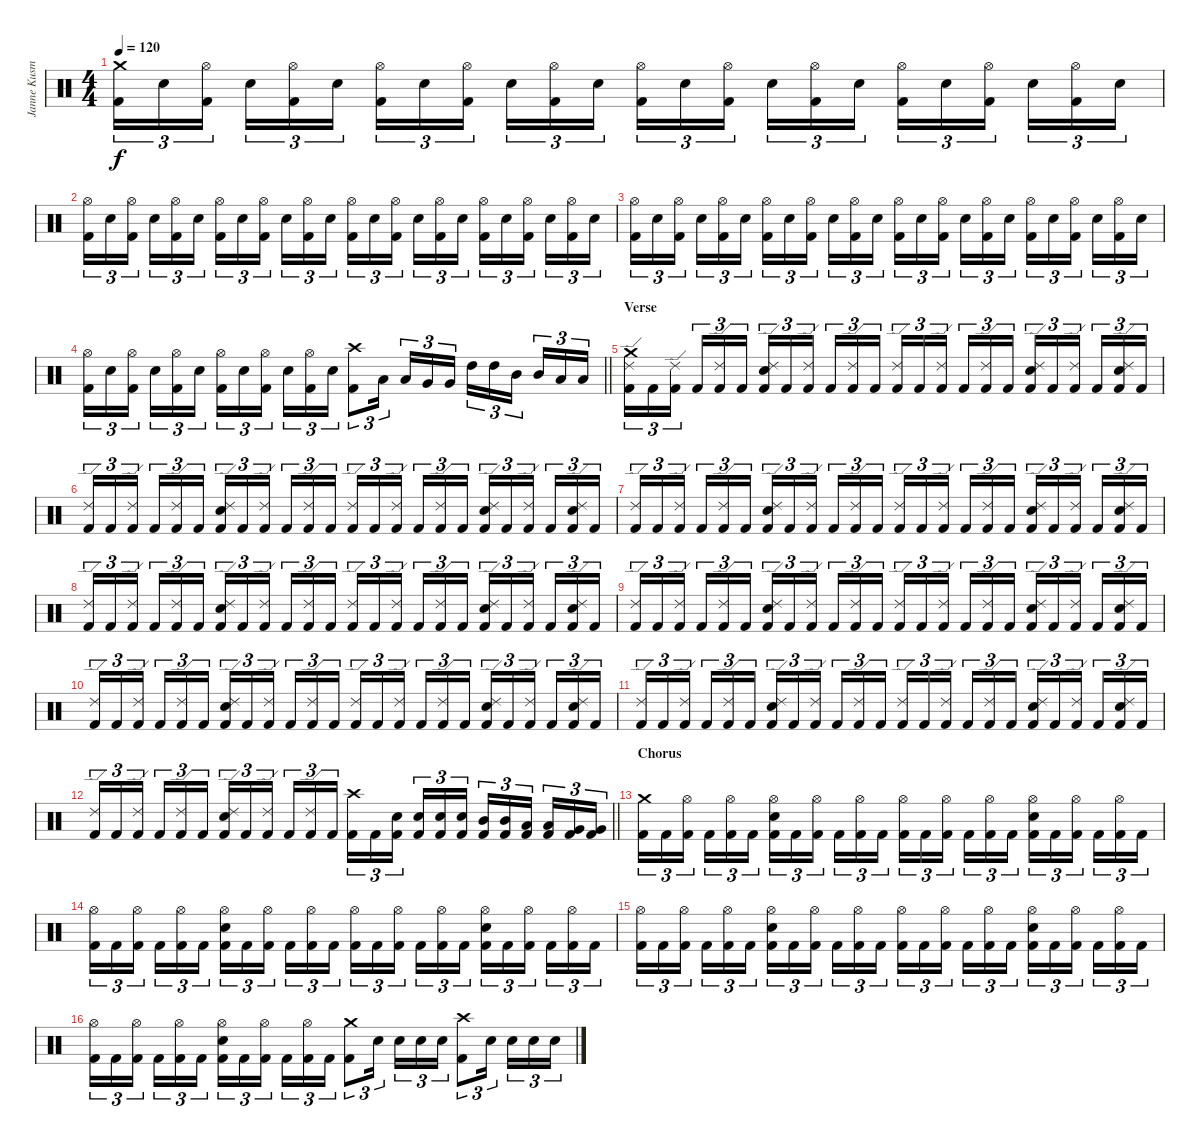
\track ("Janne Kusmin" "Janne Kusm") {instrument percussion}
\staff {score}
\articulation defaults
\ts (4 4)
\tempo 120
\clef neutral
\ks c
("Crash medium (hit)" "Kick (hit) 2").16{tu (3 2) dy f} "Snare (hit) 2".16{tu (3 2)} ("Hi-Hat (open)" "Kick (hit) 2").16{tu (3 2) beam splitsecondary} "Snare (hit) 2".16{tu (3 2)} ("Hi-Hat (open)" "Kick (hit) 2").16{tu (3 2)} "Snare (hit) 2".16{tu (3 2)} ("Hi-Hat (open)" "Kick (hit) 2").16{tu (3 2)} "Snare (hit) 2".16{tu (3 2)} ("Hi-Hat (open)" "Kick (hit) 2").16{tu (3 2) beam splitsecondary} "Snare (hit) 2".16{tu (3 2)} ("Hi-Hat (open)" "Kick (hit) 2").16{tu (3 2)} "Snare (hit) 2".16{tu (3 2)} ("Hi-Hat (open)" "Kick (hit) 2").16{tu (3 2)} "Snare (hit) 2".16{tu (3 2)} ("Hi-Hat (open)" "Kick (hit) 2").16{tu (3 2) beam splitsecondary} "Snare (hit) 2".16{tu (3 2)} ("Hi-Hat (open)" "Kick (hit) 2").16{tu (3 2)} "Snare (hit) 2".16{tu (3 2)} ("Hi-Hat (open)" "Kick (hit) 2").16{tu (3 2)} "Snare (hit) 2".16{tu (3 2)} ("Hi-Hat (open)" "Kick (hit) 2").16{tu (3 2) beam splitsecondary} "Snare (hit) 2".16{tu (3 2)} ("Hi-Hat (open)" "Kick (hit) 2").16{tu (3 2)} "Snare (hit) 2".16{tu (3 2)} |
("Hi-Hat (open)" "Kick (hit) 2").16{tu (3 2)} "Snare (hit) 2".16{tu (3 2)} ("Hi-Hat (open)" "Kick (hit) 2").16{tu (3 2) beam splitsecondary} "Snare (hit) 2".16{tu (3 2)} ("Hi-Hat (open)" "Kick (hit) 2").16{tu (3 2)} "Snare (hit) 2".16{tu (3 2)} ("Hi-Hat (open)" "Kick (hit) 2").16{tu (3 2)} "Snare (hit) 2".16{tu (3 2)} ("Hi-Hat (open)" "Kick (hit) 2").16{tu (3 2) beam splitsecondary} "Snare (hit) 2".16{tu (3 2)} ("Hi-Hat (open)" "Kick (hit) 2").16{tu (3 2)} "Snare (hit) 2".16{tu (3 2)} ("Hi-Hat (open)" "Kick (hit) 2").16{tu (3 2)} "Snare (hit) 2".16{tu (3 2)} ("Hi-Hat (open)" "Kick (hit) 2").16{tu (3 2) beam splitsecondary} "Snare (hit) 2".16{tu (3 2)} ("Hi-Hat (open)" "Kick (hit) 2").16{tu (3 2)} "Snare (hit) 2".16{tu (3 2)} ("Hi-Hat (open)" "Kick (hit) 2").16{tu (3 2)} "Snare (hit) 2".16{tu (3 2)} ("Hi-Hat (open)" "Kick (hit) 2").16{tu (3 2) beam splitsecondary} "Snare (hit) 2".16{tu (3 2)} ("Hi-Hat (open)" "Kick (hit) 2").16{tu (3 2)} "Snare (hit) 2".16{tu (3 2)} |
("Hi-Hat (open)" "Kick (hit) 2").16{tu (3 2)} "Snare (hit) 2".16{tu (3 2)} ("Hi-Hat (open)" "Kick (hit) 2").16{tu (3 2) beam splitsecondary} "Snare (hit) 2".16{tu (3 2)} ("Hi-Hat (open)" "Kick (hit) 2").16{tu (3 2)} "Snare (hit) 2".16{tu (3 2)} ("Hi-Hat (open)" "Kick (hit) 2").16{tu (3 2)} "Snare (hit) 2".16{tu (3 2)} ("Hi-Hat (open)" "Kick (hit) 2").16{tu (3 2) beam splitsecondary} "Snare (hit) 2".16{tu (3 2)} ("Hi-Hat (open)" "Kick (hit) 2").16{tu (3 2)} "Snare (hit) 2".16{tu (3 2)} ("Hi-Hat (open)" "Kick (hit) 2").16{tu (3 2)} "Snare (hit) 2".16{tu (3 2)} ("Hi-Hat (open)" "Kick (hit) 2").16{tu (3 2) beam splitsecondary} "Snare (hit) 2".16{tu (3 2)} ("Hi-Hat (open)" "Kick (hit) 2").16{tu (3 2)} "Snare (hit) 2".16{tu (3 2)} ("Hi-Hat (open)" "Kick (hit) 2").16{tu (3 2)} "Snare (hit) 2".16{tu (3 2)} ("Hi-Hat (open)" "Kick (hit) 2").16{tu (3 2) beam splitsecondary} "Snare (hit) 2".16{tu (3 2)} ("Hi-Hat (open)" "Kick (hit) 2").16{tu (3 2)} "Snare (hit) 2".16{tu (3 2)} |
\barLineRight lightlight
("Hi-Hat (open)" "Kick (hit) 2").16{tu (3 2)} "Snare (hit) 2".16{tu (3 2)} ("Hi-Hat (open)" "Kick (hit) 2").16{tu (3 2) beam splitsecondary} "Snare (hit) 2".16{tu (3 2)} ("Hi-Hat (open)" "Kick (hit) 2").16{tu (3 2)} "Snare (hit) 2".16{tu (3 2)} ("Hi-Hat (open)" "Kick (hit) 2").16{tu (3 2)} "Snare (hit) 2".16{tu (3 2)} ("Hi-Hat (open)" "Kick (hit) 2").16{tu (3 2) beam splitsecondary} "Snare (hit) 2".16{tu (3 2)} ("Hi-Hat (open)" "Kick (hit) 2").16{tu (3 2)} "Snare (hit) 2".16{tu (3 2)} ("Crash high (hit)" "Kick (hit) 2").8{tu (3 2)} "Low Tom (hit)".16{tu (3 2) beam splitsecondary} "Low Tom (hit)".16{tu (3 2)} "Very Low Tom (hit)".16{tu (3 2)} "Very Low Tom (hit)".16{tu (3 2)} "High Tom (hit)".16{tu (3 2)} "High Tom (hit)".16{tu (3 2)} "Mid Tom (hit)".16{tu (3 2) beam splitsecondary} "Mid Tom (hit)".16{tu (3 2)} "Low Tom (hit)".16{tu (3 2)} "Low Tom (hit)".16{tu (3 2)} |
\section ("" "Verse")
("Crash medium (hit)" "Ride (edge) 2" "Kick (hit) 2").16{tu (3 2)} "Kick (hit) 2".16{tu (3 2)} ("Ride (edge) 2" "Kick (hit) 2").16{tu (3 2) beam splitsecondary} "Kick (hit) 2".16{tu (3 2)} ("Ride (edge) 2" "Kick (hit) 2").16{tu (3 2)} "Kick (hit) 2".16{tu (3 2)} ("Ride (edge) 2" "Snare (hit) 2" "Kick (hit) 2").16{tu (3 2)} "Kick (hit) 2".16{tu (3 2)} ("Ride (edge) 2" "Kick (hit) 2").16{tu (3 2) beam splitsecondary} "Kick (hit) 2".16{tu (3 2)} ("Ride (edge) 2" "Kick (hit) 2").16{tu (3 2)} "Kick (hit) 2".16{tu (3 2)} ("Ride (edge) 2" "Kick (hit) 2").16{tu (3 2)} "Kick (hit) 2".16{tu (3 2)} ("Ride (edge) 2" "Kick (hit) 2").16{tu (3 2) beam splitsecondary} "Kick (hit) 2".16{tu (3 2)} ("Ride (edge) 2" "Kick (hit) 2").16{tu (3 2)} "Kick (hit) 2".16{tu (3 2)} ("Ride (edge) 2" "Snare (hit) 2" "Kick (hit) 2").16{tu (3 2)} "Kick (hit) 2".16{tu (3 2)} ("Ride (edge) 2" "Kick (hit) 2").16{tu (3 2) beam splitsecondary} "Kick (hit) 2".16{tu (3 2)} ("Ride (edge) 2" "Snare (hit) 2" "Kick (hit) 2").16{tu (3 2)} "Kick (hit) 2".16{tu (3 2)} |
("Ride (edge) 2" "Kick (hit) 2").16{tu (3 2)} "Kick (hit) 2".16{tu (3 2)} ("Ride (edge) 2" "Kick (hit) 2").16{tu (3 2) beam splitsecondary} "Kick (hit) 2".16{tu (3 2)} ("Ride (edge) 2" "Kick (hit) 2").16{tu (3 2)} "Kick (hit) 2".16{tu (3 2)} ("Ride (edge) 2" "Snare (hit) 2" "Kick (hit) 2").16{tu (3 2)} "Kick (hit) 2".16{tu (3 2)} ("Ride (edge) 2" "Kick (hit) 2").16{tu (3 2) beam splitsecondary} "Kick (hit) 2".16{tu (3 2)} ("Ride (edge) 2" "Kick (hit) 2").16{tu (3 2)} "Kick (hit) 2".16{tu (3 2)} ("Ride (edge) 2" "Kick (hit) 2").16{tu (3 2)} "Kick (hit) 2".16{tu (3 2)} ("Ride (edge) 2" "Kick (hit) 2").16{tu (3 2) beam splitsecondary} "Kick (hit) 2".16{tu (3 2)} ("Ride (edge) 2" "Kick (hit) 2").16{tu (3 2)} "Kick (hit) 2".16{tu (3 2)} ("Ride (edge) 2" "Snare (hit) 2" "Kick (hit) 2").16{tu (3 2)} "Kick (hit) 2".16{tu (3 2)} ("Ride (edge) 2" "Kick (hit) 2").16{tu (3 2) beam splitsecondary} "Kick (hit) 2".16{tu (3 2)} ("Ride (edge) 2" "Snare (hit) 2" "Kick (hit) 2").16{tu (3 2)} "Kick (hit) 2".16{tu (3 2)} |
("Ride (edge) 2" "Kick (hit) 2").16{tu (3 2)} "Kick (hit) 2".16{tu (3 2)} ("Ride (edge) 2" "Kick (hit) 2").16{tu (3 2) beam splitsecondary} "Kick (hit) 2".16{tu (3 2)} ("Ride (edge) 2" "Kick (hit) 2").16{tu (3 2)} "Kick (hit) 2".16{tu (3 2)} ("Ride (edge) 2" "Snare (hit) 2" "Kick (hit) 2").16{tu (3 2)} "Kick (hit) 2".16{tu (3 2)} ("Ride (edge) 2" "Kick (hit) 2").16{tu (3 2) beam splitsecondary} "Kick (hit) 2".16{tu (3 2)} ("Ride (edge) 2" "Kick (hit) 2").16{tu (3 2)} "Kick (hit) 2".16{tu (3 2)} ("Ride (edge) 2" "Kick (hit) 2").16{tu (3 2)} "Kick (hit) 2".16{tu (3 2)} ("Ride (edge) 2" "Kick (hit) 2").16{tu (3 2) beam splitsecondary} "Kick (hit) 2".16{tu (3 2)} ("Ride (edge) 2" "Kick (hit) 2").16{tu (3 2)} "Kick (hit) 2".16{tu (3 2)} ("Ride (edge) 2" "Snare (hit) 2" "Kick (hit) 2").16{tu (3 2)} "Kick (hit) 2".16{tu (3 2)} ("Ride (edge) 2" "Kick (hit) 2").16{tu (3 2) beam splitsecondary} "Kick (hit) 2".16{tu (3 2)} ("Ride (edge) 2" "Snare (hit) 2" "Kick (hit) 2").16{tu (3 2)} "Kick (hit) 2".16{tu (3 2)} |
("Ride (edge) 2" "Kick (hit) 2").16{tu (3 2)} "Kick (hit) 2".16{tu (3 2)} ("Ride (edge) 2" "Kick (hit) 2").16{tu (3 2) beam splitsecondary} "Kick (hit) 2".16{tu (3 2)} ("Ride (edge) 2" "Kick (hit) 2").16{tu (3 2)} "Kick (hit) 2".16{tu (3 2)} ("Ride (edge) 2" "Snare (hit) 2" "Kick (hit) 2").16{tu (3 2)} "Kick (hit) 2".16{tu (3 2)} ("Ride (edge) 2" "Kick (hit) 2").16{tu (3 2) beam splitsecondary} "Kick (hit) 2".16{tu (3 2)} ("Ride (edge) 2" "Kick (hit) 2").16{tu (3 2)} "Kick (hit) 2".16{tu (3 2)} ("Ride (edge) 2" "Kick (hit) 2").16{tu (3 2)} "Kick (hit) 2".16{tu (3 2)} ("Ride (edge) 2" "Kick (hit) 2").16{tu (3 2) beam splitsecondary} "Kick (hit) 2".16{tu (3 2)} ("Ride (edge) 2" "Kick (hit) 2").16{tu (3 2)} "Kick (hit) 2".16{tu (3 2)} ("Ride (edge) 2" "Snare (hit) 2" "Kick (hit) 2").16{tu (3 2)} "Kick (hit) 2".16{tu (3 2)} ("Ride (edge) 2" "Kick (hit) 2").16{tu (3 2) beam splitsecondary} "Kick (hit) 2".16{tu (3 2)} ("Ride (edge) 2" "Snare (hit) 2" "Kick (hit) 2").16{tu (3 2)} "Kick (hit) 2".16{tu (3 2)} |
("Ride (edge) 2" "Kick (hit) 2").16{tu (3 2)} "Kick (hit) 2".16{tu (3 2)} ("Ride (edge) 2" "Kick (hit) 2").16{tu (3 2) beam splitsecondary} "Kick (hit) 2".16{tu (3 2)} ("Ride (edge) 2" "Kick (hit) 2").16{tu (3 2)} "Kick (hit) 2".16{tu (3 2)} ("Ride (edge) 2" "Snare (hit) 2" "Kick (hit) 2").16{tu (3 2)} "Kick (hit) 2".16{tu (3 2)} ("Ride (edge) 2" "Kick (hit) 2").16{tu (3 2) beam splitsecondary} "Kick (hit) 2".16{tu (3 2)} ("Ride (edge) 2" "Kick (hit) 2").16{tu (3 2)} "Kick (hit) 2".16{tu (3 2)} ("Ride (edge) 2" "Kick (hit) 2").16{tu (3 2)} "Kick (hit) 2".16{tu (3 2)} ("Ride (edge) 2" "Kick (hit) 2").16{tu (3 2) beam splitsecondary} "Kick (hit) 2".16{tu (3 2)} ("Ride (edge) 2" "Kick (hit) 2").16{tu (3 2)} "Kick (hit) 2".16{tu (3 2)} ("Ride (edge) 2" "Snare (hit) 2" "Kick (hit) 2").16{tu (3 2)} "Kick (hit) 2".16{tu (3 2)} ("Ride (edge) 2" "Kick (hit) 2").16{tu (3 2) beam splitsecondary} "Kick (hit) 2".16{tu (3 2)} ("Ride (edge) 2" "Snare (hit) 2" "Kick (hit) 2").16{tu (3 2)} "Kick (hit) 2".16{tu (3 2)} |
("Ride (edge) 2" "Kick (hit) 2").16{tu (3 2)} "Kick (hit) 2".16{tu (3 2)} ("Ride (edge) 2" "Kick (hit) 2").16{tu (3 2) beam splitsecondary} "Kick (hit) 2".16{tu (3 2)} ("Ride (edge) 2" "Kick (hit) 2").16{tu (3 2)} "Kick (hit) 2".16{tu (3 2)} ("Ride (edge) 2" "Snare (hit) 2" "Kick (hit) 2").16{tu (3 2)} "Kick (hit) 2".16{tu (3 2)} ("Ride (edge) 2" "Kick (hit) 2").16{tu (3 2) beam splitsecondary} "Kick (hit) 2".16{tu (3 2)} ("Ride (edge) 2" "Kick (hit) 2").16{tu (3 2)} "Kick (hit) 2".16{tu (3 2)} ("Ride (edge) 2" "Kick (hit) 2").16{tu (3 2)} "Kick (hit) 2".16{tu (3 2)} ("Ride (edge) 2" "Kick (hit) 2").16{tu (3 2) beam splitsecondary} "Kick (hit) 2".16{tu (3 2)} ("Ride (edge) 2" "Kick (hit) 2").16{tu (3 2)} "Kick (hit) 2".16{tu (3 2)} ("Ride (edge) 2" "Snare (hit) 2" "Kick (hit) 2").16{tu (3 2)} "Kick (hit) 2".16{tu (3 2)} ("Ride (edge) 2" "Kick (hit) 2").16{tu (3 2) beam splitsecondary} "Kick (hit) 2".16{tu (3 2)} ("Ride (edge) 2" "Snare (hit) 2" "Kick (hit) 2").16{tu (3 2)} "Kick (hit) 2".16{tu (3 2)} |
("Ride (edge) 2" "Kick (hit) 2").16{tu (3 2)} "Kick (hit) 2".16{tu (3 2)} ("Ride (edge) 2" "Kick (hit) 2").16{tu (3 2) beam splitsecondary} "Kick (hit) 2".16{tu (3 2)} ("Ride (edge) 2" "Kick (hit) 2").16{tu (3 2)} "Kick (hit) 2".16{tu (3 2)} ("Ride (edge) 2" "Snare (hit) 2" "Kick (hit) 2").16{tu (3 2)} "Kick (hit) 2".16{tu (3 2)} ("Ride (edge) 2" "Kick (hit) 2").16{tu (3 2) beam splitsecondary} "Kick (hit) 2".16{tu (3 2)} ("Ride (edge) 2" "Kick (hit) 2").16{tu (3 2)} "Kick (hit) 2".16{tu (3 2)} ("Ride (edge) 2" "Kick (hit) 2").16{tu (3 2)} "Kick (hit) 2".16{tu (3 2)} ("Ride (edge) 2" "Kick (hit) 2").16{tu (3 2) beam splitsecondary} "Kick (hit) 2".16{tu (3 2)} ("Ride (edge) 2" "Kick (hit) 2").16{tu (3 2)} "Kick (hit) 2".16{tu (3 2)} ("Ride (edge) 2" "Snare (hit) 2" "Kick (hit) 2").16{tu (3 2)} "Kick (hit) 2".16{tu (3 2)} ("Ride (edge) 2" "Kick (hit) 2").16{tu (3 2) beam splitsecondary} "Kick (hit) 2".16{tu (3 2)} ("Ride (edge) 2" "Snare (hit) 2" "Kick (hit) 2").16{tu (3 2)} "Kick (hit) 2".16{tu (3 2)} |
\barLineRight lightlight
("Ride (edge) 2" "Kick (hit) 2").16{tu (3 2)} "Kick (hit) 2".16{tu (3 2)} ("Ride (edge) 2" "Kick (hit) 2").16{tu (3 2) beam splitsecondary} "Kick (hit) 2".16{tu (3 2)} ("Ride (edge) 2" "Kick (hit) 2").16{tu (3 2)} "Kick (hit) 2".16{tu (3 2)} ("Ride (edge) 2" "Snare (hit) 2" "Kick (hit) 2").16{tu (3 2)} "Kick (hit) 2".16{tu (3 2)} ("Ride (edge) 2" "Kick (hit) 2").16{tu (3 2) beam splitsecondary} "Kick (hit) 2".16{tu (3 2)} ("Ride (edge) 2" "Kick (hit) 2").16{tu (3 2)} "Kick (hit) 2".16{tu (3 2)} ("Crash high (hit)" "Kick (hit) 2").16{tu (3 2)} "Kick (hit) 2".16{tu (3 2)} ("Snare (hit) 2" "Kick (hit) 2").16{tu (3 2) beam splitsecondary} ("Snare (hit) 2" "Kick (hit) 2").16{tu (3 2)} ("Snare (hit) 2" "Kick (hit) 2").16{tu (3 2)} ("Snare (hit) 2" "Kick (hit) 2").16{tu (3 2)} ("Mid Tom (hit)" "Kick (hit) 2").16{tu (3 2)} ("Mid Tom (hit)" "Kick (hit) 2").16{tu (3 2)} ("Low Tom (hit)" "Kick (hit) 2").16{tu (3 2) beam splitsecondary} ("Low Tom (hit)" "Kick (hit) 2").16{tu (3 2)} ("Very Low Tom (hit)" "Kick (hit) 2").16{tu (3 2)} ("Very Low Tom (hit)" "Kick (hit) 2").16{tu (3 2)} |
\section ("" "Chorus")
("Crash medium (hit)" "Kick (hit) 2").16{tu (3 2)} "Kick (hit) 2".16{tu (3 2)} ("Hi-Hat (open)" "Kick (hit) 2").16{tu (3 2) beam splitsecondary} "Kick (hit) 2".16{tu (3 2)} ("Hi-Hat (open)" "Kick (hit) 2").16{tu (3 2)} "Kick (hit) 2".16{tu (3 2)} ("Hi-Hat (open)" "Snare (hit) 2" "Kick (hit) 2").16{tu (3 2)} "Kick (hit) 2".16{tu (3 2)} ("Hi-Hat (open)" "Kick (hit) 2").16{tu (3 2) beam splitsecondary} "Kick (hit) 2".16{tu (3 2)} ("Hi-Hat (open)" "Kick (hit) 2").16{tu (3 2)} "Kick (hit) 2".16{tu (3 2)} ("Hi-Hat (open)" "Kick (hit) 2").16{tu (3 2)} "Kick (hit) 2".16{tu (3 2)} ("Hi-Hat (open)" "Kick (hit) 2").16{tu (3 2) beam splitsecondary} "Kick (hit) 2".16{tu (3 2)} ("Hi-Hat (open)" "Kick (hit) 2").16{tu (3 2)} "Kick (hit) 2".16{tu (3 2)} ("Hi-Hat (open)" "Snare (hit) 2" "Kick (hit) 2").16{tu (3 2)} "Kick (hit) 2".16{tu (3 2)} ("Hi-Hat (open)" "Kick (hit) 2").16{tu (3 2) beam splitsecondary} "Kick (hit) 2".16{tu (3 2)} ("Hi-Hat (open)" "Kick (hit) 2").16{tu (3 2)} "Kick (hit) 2".16{tu (3 2)} |
("Hi-Hat (open)" "Kick (hit) 2").16{tu (3 2)} "Kick (hit) 2".16{tu (3 2)} ("Hi-Hat (open)" "Kick (hit) 2").16{tu (3 2) beam splitsecondary} "Kick (hit) 2".16{tu (3 2)} ("Hi-Hat (open)" "Kick (hit) 2").16{tu (3 2)} "Kick (hit) 2".16{tu (3 2)} ("Hi-Hat (open)" "Snare (hit) 2" "Kick (hit) 2").16{tu (3 2)} "Kick (hit) 2".16{tu (3 2)} ("Hi-Hat (open)" "Kick (hit) 2").16{tu (3 2) beam splitsecondary} "Kick (hit) 2".16{tu (3 2)} ("Hi-Hat (open)" "Kick (hit) 2").16{tu (3 2)} "Kick (hit) 2".16{tu (3 2)} ("Hi-Hat (open)" "Kick (hit) 2").16{tu (3 2)} "Kick (hit) 2".16{tu (3 2)} ("Hi-Hat (open)" "Kick (hit) 2").16{tu (3 2) beam splitsecondary} "Kick (hit) 2".16{tu (3 2)} ("Hi-Hat (open)" "Kick (hit) 2").16{tu (3 2)} "Kick (hit) 2".16{tu (3 2)} ("Hi-Hat (open)" "Snare (hit) 2" "Kick (hit) 2").16{tu (3 2)} "Kick (hit) 2".16{tu (3 2)} ("Hi-Hat (open)" "Kick (hit) 2").16{tu (3 2) beam splitsecondary} "Kick (hit) 2".16{tu (3 2)} ("Hi-Hat (open)" "Kick (hit) 2").16{tu (3 2)} "Kick (hit) 2".16{tu (3 2)} |
("Hi-Hat (open)" "Kick (hit) 2").16{tu (3 2)} "Kick (hit) 2".16{tu (3 2)} ("Hi-Hat (open)" "Kick (hit) 2").16{tu (3 2) beam splitsecondary} "Kick (hit) 2".16{tu (3 2)} ("Hi-Hat (open)" "Kick (hit) 2").16{tu (3 2)} "Kick (hit) 2".16{tu (3 2)} ("Hi-Hat (open)" "Snare (hit) 2" "Kick (hit) 2").16{tu (3 2)} "Kick (hit) 2".16{tu (3 2)} ("Hi-Hat (open)" "Kick (hit) 2").16{tu (3 2) beam splitsecondary} "Kick (hit) 2".16{tu (3 2)} ("Hi-Hat (open)" "Kick (hit) 2").16{tu (3 2)} "Kick (hit) 2".16{tu (3 2)} ("Hi-Hat (open)" "Kick (hit) 2").16{tu (3 2)} "Kick (hit) 2".16{tu (3 2)} ("Hi-Hat (open)" "Kick (hit) 2").16{tu (3 2) beam splitsecondary} "Kick (hit) 2".16{tu (3 2)} ("Hi-Hat (open)" "Kick (hit) 2").16{tu (3 2)} "Kick (hit) 2".16{tu (3 2)} ("Hi-Hat (open)" "Snare (hit) 2" "Kick (hit) 2").16{tu (3 2)} "Kick (hit) 2".16{tu (3 2)} ("Hi-Hat (open)" "Kick (hit) 2").16{tu (3 2) beam splitsecondary} "Kick (hit) 2".16{tu (3 2)} ("Hi-Hat (open)" "Kick (hit) 2").16{tu (3 2)} "Kick (hit) 2".16{tu (3 2)} |
("Hi-Hat (open)" "Kick (hit) 2").16{tu (3 2)} "Kick (hit) 2".16{tu (3 2)} ("Hi-Hat (open)" "Kick (hit) 2").16{tu (3 2) beam splitsecondary} "Kick (hit) 2".16{tu (3 2)} ("Hi-Hat (open)" "Kick (hit) 2").16{tu (3 2)} "Kick (hit) 2".16{tu (3 2)} ("Hi-Hat (open)" "Snare (hit) 2" "Kick (hit) 2").16{tu (3 2)} "Kick (hit) 2".16{tu (3 2)} ("Hi-Hat (open)" "Kick (hit) 2").16{tu (3 2) beam splitsecondary} "Kick (hit) 2".16{tu (3 2)} ("Hi-Hat (open)" "Kick (hit) 2").16{tu (3 2)} "Kick (hit) 2".16{tu (3 2)} ("Crash medium (hit)" "Kick (hit) 2").8{tu (3 2)} "Snare (hit) 2".16{tu (3 2) beam splitsecondary} "Snare (hit) 2".16{tu (3 2)} "Snare (hit) 2".16{tu (3 2)} "Snare (hit) 2".16{tu (3 2)} ("Crash high (hit)" "Kick (hit) 2").8{tu (3 2)} "Snare (hit) 2".16{tu (3 2) beam splitsecondary} "Snare (hit) 2".16{tu (3 2)} "Snare (hit) 2".16{tu (3 2)} "Snare (hit) 2".16{tu (3 2)}
